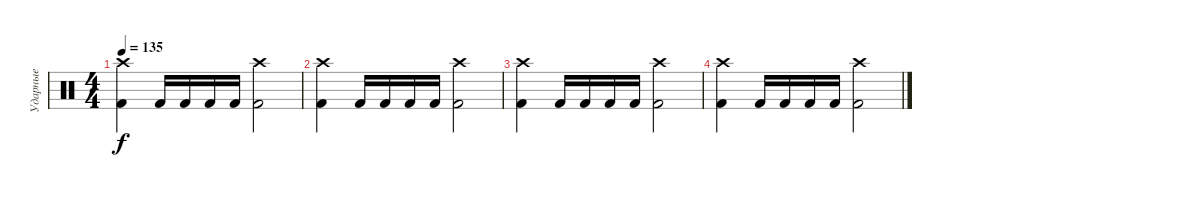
\track ("Ударные" "Ударные") {instrument percussion}
\staff {score}
\articulation defaults
\ts (4 4)
\tempo 135
\clef neutral
\ks c
("Crash high (hit)" "Kick (hit) 2").4{dy f} "Kick (hit) 2".16 "Kick (hit) 2".16 "Kick (hit) 2".16 "Kick (hit) 2".16 ("Crash high (hit)" "Kick (hit) 2").2 |
("Crash high (hit)" "Kick (hit) 2").4 "Kick (hit) 2".16 "Kick (hit) 2".16 "Kick (hit) 2".16 "Kick (hit) 2".16 ("Crash high (hit)" "Kick (hit) 2").2 |
("Crash high (hit)" "Kick (hit) 2").4 "Kick (hit) 2".16 "Kick (hit) 2".16 "Kick (hit) 2".16 "Kick (hit) 2".16 ("Crash high (hit)" "Kick (hit) 2").2 |
("Crash high (hit)" "Kick (hit) 2").4 "Kick (hit) 2".16 "Kick (hit) 2".16 "Kick (hit) 2".16 "Kick (hit) 2".16 ("Crash high (hit)" "Kick (hit) 2").2
